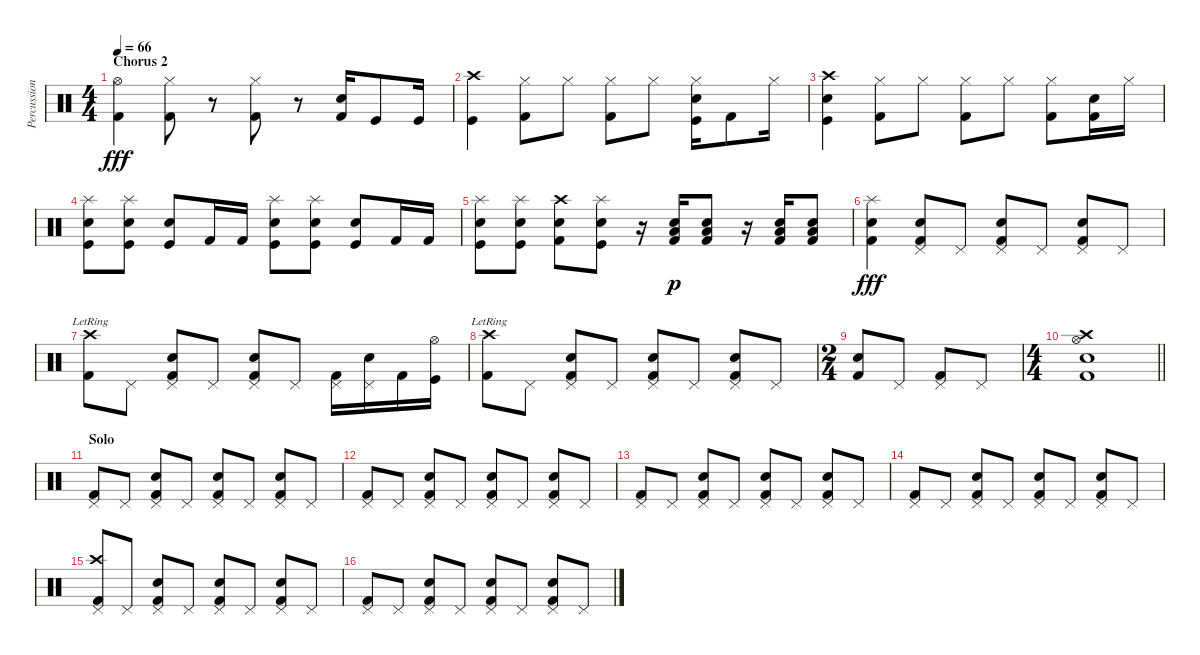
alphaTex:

\track ("Percussion" "Percussion") {instrument percussion}
\staff {score}
\articulation defaults
\ts (4 4)
\section ("" "Chorus 2")
\tempo 66
\clef neutral
\ks c
("Hi-Hat (open)" "Kick (hit) 2").4{dy fff} ("Hi-Hat (closed)" "Kick (hit) 2").8 r.8 ("Hi-Hat (closed)" "Kick (hit) 2").8 r.8 ("Snare (hit) 2" "Kick (hit) 2").16 "Kick (hit)".8 "Kick (hit)".16 |
("Crash high (hit)" "Kick (hit)").4 ("Hi-Hat (closed)" "Kick (hit) 2").8 "Hi-Hat (closed)".8 ("Hi-Hat (closed)" "Kick (hit) 2").8 "Hi-Hat (closed)".8 ("Hi-Hat (closed)" "Snare (hit) 2" "Kick (hit)").16 "Kick (hit) 2".8 "Hi-Hat (closed)".16 |
("Crash high (hit)" "Snare (hit) 2" "Kick (hit)").4 ("Hi-Hat (closed)" "Kick (hit) 2").8 "Hi-Hat (closed)".8 ("Hi-Hat (closed)" "Kick (hit) 2").8 "Hi-Hat (closed)".8 ("Hi-Hat (closed)" "Kick (hit) 2").8 ("Snare (hit) 2" "Kick (hit) 2").16 "Hi-Hat (closed)".16 |
("Splash (hit)" "Snare (hit) 2" "Kick (hit)").8 ("Splash (hit)" "Snare (hit) 2" "Kick (hit)").8 ("Snare (hit) 2" "Kick (hit)").8 "Kick (hit) 2".16 "Kick (hit) 2".16 ("Splash (hit)" "Snare (hit) 2" "Kick (hit)").8 ("Splash (hit)" "Snare (hit) 2" "Kick (hit)").8 ("Snare (hit) 2" "Kick (hit)").8 "Kick (hit) 2".16 "Kick (hit) 2".16 |
("Splash (hit)" "Snare (hit) 2" "Kick (hit)").8 ("Splash (hit)" "Snare (hit) 2" "Kick (hit)").8 ("Crash high (hit)" "Snare (hit) 2" "Kick (hit) 2").8 ("Splash (hit)" "Snare (hit) 2" "Kick (hit)").8 r.16 ("Low Floor Tom (hit)" "Snare (hit) 2" "Kick (hit) 2").16{dy p} ("Low Floor Tom (hit)" "Snare (hit) 2" "Kick (hit) 2").8 r.16 ("Low Floor Tom (hit)" "Snare (hit) 2" "Kick (hit) 2").16 ("Low Floor Tom (hit)" "Snare (hit) 2" "Kick (hit) 2").8 |
("Splash (hit)" "Snare (hit) 2" "Kick (hit) 2").4{dy fff} ("Pedal Hi-Hat (hit)" "Snare (hit) 2" "Kick (hit) 2").8 "Pedal Hi-Hat (hit)".8 ("Pedal Hi-Hat (hit)" "Snare (hit) 2" "Kick (hit) 2").8 "Pedal Hi-Hat (hit)".8 ("Pedal Hi-Hat (hit)" "Snare (hit) 2" "Kick (hit) 2").8 "Pedal Hi-Hat (hit)".8 |
("Crash high (hit)"{lr} "Kick (hit) 2").8 "Pedal Hi-Hat (hit)".8 ("Pedal Hi-Hat (hit)" "Snare (hit) 2" "Kick (hit) 2").8 "Pedal Hi-Hat (hit)".8 ("Pedal Hi-Hat (hit)" "Snare (hit) 2" "Kick (hit) 2").8 "Pedal Hi-Hat (hit)".8 ("Pedal Hi-Hat (hit)" "Kick (hit) 2").16 ("Pedal Hi-Hat (hit)" "Snare (hit) 2").16 "Kick (hit) 2".16 ("Hi-Hat (open)" "Kick (hit)").16 |
("Crash high (hit)"{lr} "Kick (hit) 2").8 "Pedal Hi-Hat (hit)".8 ("Pedal Hi-Hat (hit)" "Snare (hit) 2" "Kick (hit) 2").8 "Pedal Hi-Hat (hit)".8 ("Pedal Hi-Hat (hit)" "Snare (hit) 2" "Kick (hit) 2").8 "Pedal Hi-Hat (hit)".8 ("Pedal Hi-Hat (hit)" "Snare (hit) 2" "Kick (hit) 2").8 "Pedal Hi-Hat (hit)".8 |
\ts (2 4)
("Snare (hit) 2" "Kick (hit) 2").8 "Pedal Hi-Hat (hit)".8 ("Pedal Hi-Hat (hit)" "Kick (hit) 2").8 "Pedal Hi-Hat (hit)".8 |
\ts (4 4)
\barLineRight lightlight
("Crash high (hit)" "Hi-Hat (open)" "Kick (hit) 2" "Snare (hit) 2").1 |
\section ("" "Solo")
("Pedal Hi-Hat (hit)" "Kick (hit) 2").8 "Pedal Hi-Hat (hit)".8 ("Pedal Hi-Hat (hit)" "Snare (hit) 2" "Kick (hit) 2").8 "Pedal Hi-Hat (hit)".8 ("Pedal Hi-Hat (hit)" "Snare (hit) 2" "Kick (hit) 2").8 "Pedal Hi-Hat (hit)".8 ("Pedal Hi-Hat (hit)" "Snare (hit) 2" "Kick (hit) 2").8 "Pedal Hi-Hat (hit)".8 |
("Pedal Hi-Hat (hit)" "Kick (hit) 2").8 "Pedal Hi-Hat (hit)".8 ("Pedal Hi-Hat (hit)" "Snare (hit) 2" "Kick (hit) 2").8 "Pedal Hi-Hat (hit)".8 ("Pedal Hi-Hat (hit)" "Snare (hit) 2" "Kick (hit) 2").8 "Pedal Hi-Hat (hit)".8 ("Pedal Hi-Hat (hit)" "Snare (hit) 2" "Kick (hit) 2").8 "Pedal Hi-Hat (hit)".8 |
("Pedal Hi-Hat (hit)" "Kick (hit) 2").8 "Pedal Hi-Hat (hit)".8 ("Pedal Hi-Hat (hit)" "Snare (hit) 2" "Kick (hit) 2").8 "Pedal Hi-Hat (hit)".8 ("Pedal Hi-Hat (hit)" "Snare (hit) 2" "Kick (hit) 2").8 "Pedal Hi-Hat (hit)".8 ("Pedal Hi-Hat (hit)" "Snare (hit) 2" "Kick (hit) 2").8 "Pedal Hi-Hat (hit)".8 |
("Pedal Hi-Hat (hit)" "Kick (hit) 2").8 "Pedal Hi-Hat (hit)".8 ("Pedal Hi-Hat (hit)" "Snare (hit) 2" "Kick (hit) 2").8 "Pedal Hi-Hat (hit)".8 ("Pedal Hi-Hat (hit)" "Snare (hit) 2" "Kick (hit) 2").8 "Pedal Hi-Hat (hit)".8 ("Pedal Hi-Hat (hit)" "Snare (hit) 2" "Kick (hit) 2").8 "Pedal Hi-Hat (hit)".8 |
("Crash high (hit)" "Pedal Hi-Hat (hit)" "Kick (hit) 2").8 "Pedal Hi-Hat (hit)".8 ("Pedal Hi-Hat (hit)" "Snare (hit) 2" "Kick (hit) 2").8 "Pedal Hi-Hat (hit)".8 ("Pedal Hi-Hat (hit)" "Snare (hit) 2" "Kick (hit) 2").8 "Pedal Hi-Hat (hit)".8 ("Pedal Hi-Hat (hit)" "Snare (hit) 2" "Kick (hit) 2").8 "Pedal Hi-Hat (hit)".8 |
("Pedal Hi-Hat (hit)" "Kick (hit) 2").8 "Pedal Hi-Hat (hit)".8 ("Pedal Hi-Hat (hit)" "Snare (hit) 2" "Kick (hit) 2").8 "Pedal Hi-Hat (hit)".8 ("Pedal Hi-Hat (hit)" "Snare (hit) 2" "Kick (hit) 2").8 "Pedal Hi-Hat (hit)".8 ("Pedal Hi-Hat (hit)" "Snare (hit) 2" "Kick (hit) 2").8 "Pedal Hi-Hat (hit)".8
